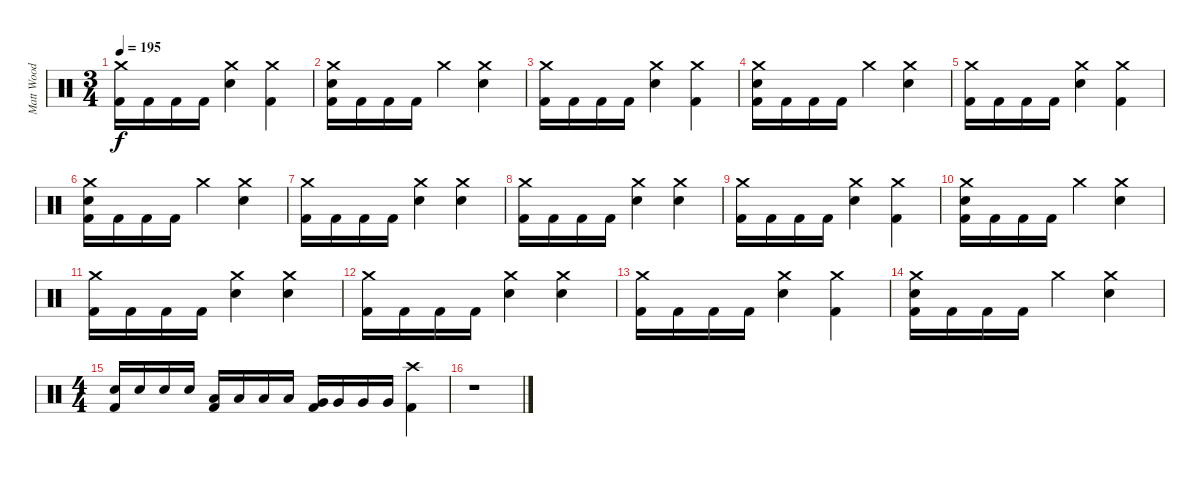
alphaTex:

\track ("Matt Wood" "Matt Wood") {instrument percussion}
\staff {score}
\articulation defaults
\ts (3 4)
\tempo 195
\clef neutral
\ks c
("Crash medium (hit)" "Kick (hit) 2").16{dy f} "Kick (hit) 2".16 "Kick (hit) 2".16 "Kick (hit) 2".16 ("Crash medium (hit)" "Snare (hit) 2").4 ("Crash medium (hit)" "Kick (hit) 2").4 |
("Crash medium (hit)" "Snare (hit) 2" "Kick (hit) 2").16 "Kick (hit) 2".16 "Kick (hit) 2".16 "Kick (hit) 2".16 "Crash medium (hit)".4 ("Crash medium (hit)" "Snare (hit) 2").4 |
("Crash medium (hit)" "Kick (hit) 2").16 "Kick (hit) 2".16 "Kick (hit) 2".16 "Kick (hit) 2".16 ("Crash medium (hit)" "Snare (hit) 2").4 ("Crash medium (hit)" "Kick (hit) 2").4 |
("Crash medium (hit)" "Snare (hit) 2" "Kick (hit) 2").16 "Kick (hit) 2".16 "Kick (hit) 2".16 "Kick (hit) 2".16 "Crash medium (hit)".4 ("Crash medium (hit)" "Snare (hit) 2").4 |
("Crash medium (hit)" "Kick (hit) 2").16 "Kick (hit) 2".16 "Kick (hit) 2".16 "Kick (hit) 2".16 ("Crash medium (hit)" "Snare (hit) 2").4 ("Crash medium (hit)" "Kick (hit) 2").4 |
("Crash medium (hit)" "Snare (hit) 2" "Kick (hit) 2").16 "Kick (hit) 2".16 "Kick (hit) 2".16 "Kick (hit) 2".16 "Crash medium (hit)".4 ("Crash medium (hit)" "Snare (hit) 2").4 |
("Crash medium (hit)" "Kick (hit) 2").16 "Kick (hit) 2".16 "Kick (hit) 2".16 "Kick (hit) 2".16 ("Crash medium (hit)" "Snare (hit) 2").4 ("Crash medium (hit)" "Snare (hit) 2").4 |
("Crash medium (hit)" "Kick (hit) 2").16 "Kick (hit) 2".16 "Kick (hit) 2".16 "Kick (hit) 2".16 ("Crash medium (hit)" "Snare (hit) 2").4 ("Crash medium (hit)" "Snare (hit) 2").4 |
("Crash medium (hit)" "Kick (hit) 2").16 "Kick (hit) 2".16 "Kick (hit) 2".16 "Kick (hit) 2".16 ("Crash medium (hit)" "Snare (hit) 2").4 ("Crash medium (hit)" "Kick (hit) 2").4 |
("Crash medium (hit)" "Snare (hit) 2" "Kick (hit) 2").16 "Kick (hit) 2".16 "Kick (hit) 2".16 "Kick (hit) 2".16 "Crash medium (hit)".4 ("Crash medium (hit)" "Snare (hit) 2").4 |
("Crash medium (hit)" "Kick (hit) 2").16 "Kick (hit) 2".16 "Kick (hit) 2".16 "Kick (hit) 2".16 ("Crash medium (hit)" "Snare (hit) 2").4 ("Crash medium (hit)" "Snare (hit) 2").4 |
("Crash medium (hit)" "Kick (hit) 2").16 "Kick (hit) 2".16 "Kick (hit) 2".16 "Kick (hit) 2".16 ("Crash medium (hit)" "Snare (hit) 2").4 ("Crash medium (hit)" "Snare (hit) 2").4 |
("Crash medium (hit)" "Kick (hit) 2").16 "Kick (hit) 2".16 "Kick (hit) 2".16 "Kick (hit) 2".16 ("Crash medium (hit)" "Snare (hit) 2").4 ("Crash medium (hit)" "Kick (hit) 2").4 |
("Crash medium (hit)" "Snare (hit) 2" "Kick (hit) 2").16 "Kick (hit) 2".16 "Kick (hit) 2".16 "Kick (hit) 2".16 "Crash medium (hit)".4 ("Crash medium (hit)" "Snare (hit) 2").4 |
\ts (4 4)
("Snare (hit) 2" "Kick (hit) 2").16 "Snare (hit) 2".16 "Snare (hit) 2".16 "Snare (hit) 2".16 ("Low Tom (hit)" "Kick (hit) 2").16 "Low Tom (hit)".16 "Low Tom (hit)".16 "Low Tom (hit)".16 ("Very Low Tom (hit)" "Kick (hit) 2").16 "Very Low Tom (hit)".16 "Very Low Tom (hit)".16 "Very Low Tom (hit)".16 ("Crash high (hit)" "Kick (hit) 2").4 |
r.1
